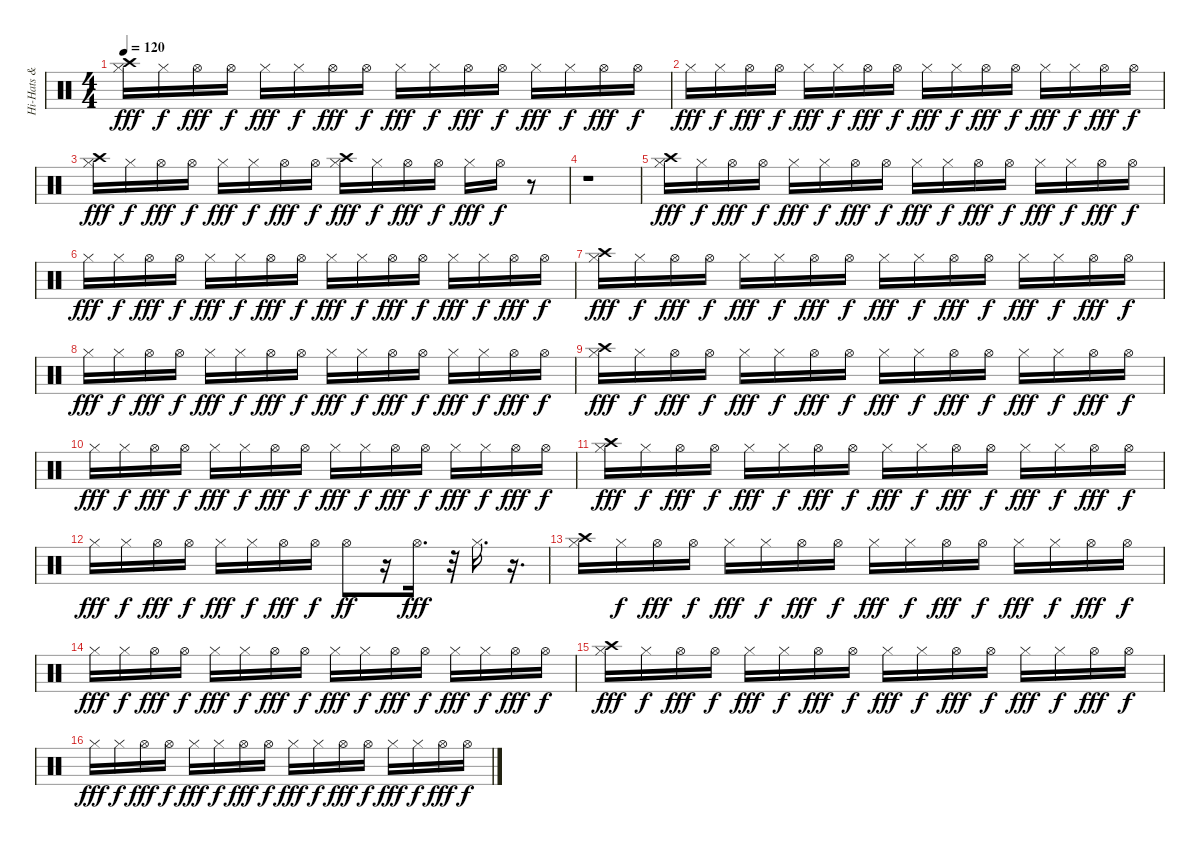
\track ("Hi-Hats & Cymbal" "Hi-Hats & ") {instrument percussion}
\staff {score}
\articulation defaults
\ts (4 4)
\tempo 120
\clef neutral
\ks c
("Hi-Hat (closed)" "Crash high (hit)").16{dy fff} "Hi-Hat (closed)".16{dy f} "Hi-Hat (open)".16{dy fff} "Hi-Hat (open)".16{dy f} "Hi-Hat (closed)".16{dy fff} "Hi-Hat (closed)".16{dy f} "Hi-Hat (open)".16{dy fff} "Hi-Hat (open)".16{dy f} "Hi-Hat (closed)".16{dy fff} "Hi-Hat (closed)".16{dy f} "Hi-Hat (open)".16{dy fff} "Hi-Hat (open)".16{dy f} "Hi-Hat (closed)".16{dy fff} "Hi-Hat (closed)".16{dy f} "Hi-Hat (open)".16{dy fff} "Hi-Hat (open)".16{dy f} |
"Hi-Hat (closed)".16{dy fff} "Hi-Hat (closed)".16{dy f} "Hi-Hat (open)".16{dy fff} "Hi-Hat (open)".16{dy f} "Hi-Hat (closed)".16{dy fff} "Hi-Hat (closed)".16{dy f} "Hi-Hat (open)".16{dy fff} "Hi-Hat (open)".16{dy f} "Hi-Hat (closed)".16{dy fff} "Hi-Hat (closed)".16{dy f} "Hi-Hat (open)".16{dy fff} "Hi-Hat (open)".16{dy f} "Hi-Hat (closed)".16{dy fff} "Hi-Hat (closed)".16{dy f} "Hi-Hat (open)".16{dy fff} "Hi-Hat (open)".16{dy f} |
("Hi-Hat (closed)" "Crash high (hit)").16{dy fff} "Hi-Hat (closed)".16{dy f} "Hi-Hat (open)".16{dy fff} "Hi-Hat (open)".16{dy f} "Hi-Hat (closed)".16{dy fff} "Hi-Hat (closed)".16{dy f} "Hi-Hat (open)".16{dy fff} "Hi-Hat (open)".16{dy f} ("Hi-Hat (closed)" "Crash high (hit)").16{dy fff} "Hi-Hat (closed)".16{dy f} "Hi-Hat (open)".16{dy fff} "Hi-Hat (open)".16{dy f} "Hi-Hat (closed)".16{dy fff} "Hi-Hat (open)".16{dy f} r.8 |
r.1 |
("Hi-Hat (closed)" "Crash high (hit)").16{dy fff} "Hi-Hat (closed)".16{dy f} "Hi-Hat (open)".16{dy fff} "Hi-Hat (open)".16{dy f} "Hi-Hat (closed)".16{dy fff} "Hi-Hat (closed)".16{dy f} "Hi-Hat (open)".16{dy fff} "Hi-Hat (open)".16{dy f} "Hi-Hat (closed)".16{dy fff} "Hi-Hat (closed)".16{dy f} "Hi-Hat (open)".16{dy fff} "Hi-Hat (open)".16{dy f} "Hi-Hat (closed)".16{dy fff} "Hi-Hat (closed)".16{dy f} "Hi-Hat (open)".16{dy fff} "Hi-Hat (open)".16{dy f} |
"Hi-Hat (closed)".16{dy fff} "Hi-Hat (closed)".16{dy f} "Hi-Hat (open)".16{dy fff} "Hi-Hat (open)".16{dy f} "Hi-Hat (closed)".16{dy fff} "Hi-Hat (closed)".16{dy f} "Hi-Hat (open)".16{dy fff} "Hi-Hat (open)".16{dy f} "Hi-Hat (closed)".16{dy fff} "Hi-Hat (closed)".16{dy f} "Hi-Hat (open)".16{dy fff} "Hi-Hat (open)".16{dy f} "Hi-Hat (closed)".16{dy fff} "Hi-Hat (closed)".16{dy f} "Hi-Hat (open)".16{dy fff} "Hi-Hat (open)".16{dy f} |
("Hi-Hat (closed)" "Crash high (hit)").16{dy fff} "Hi-Hat (closed)".16{dy f} "Hi-Hat (open)".16{dy fff} "Hi-Hat (open)".16{dy f} "Hi-Hat (closed)".16{dy fff} "Hi-Hat (closed)".16{dy f} "Hi-Hat (open)".16{dy fff} "Hi-Hat (open)".16{dy f} "Hi-Hat (closed)".16{dy fff} "Hi-Hat (closed)".16{dy f} "Hi-Hat (open)".16{dy fff} "Hi-Hat (open)".16{dy f} "Hi-Hat (closed)".16{dy fff} "Hi-Hat (closed)".16{dy f} "Hi-Hat (open)".16{dy fff} "Hi-Hat (open)".16{dy f} |
"Hi-Hat (closed)".16{dy fff} "Hi-Hat (closed)".16{dy f} "Hi-Hat (open)".16{dy fff} "Hi-Hat (open)".16{dy f} "Hi-Hat (closed)".16{dy fff} "Hi-Hat (closed)".16{dy f} "Hi-Hat (open)".16{dy fff} "Hi-Hat (open)".16{dy f} "Hi-Hat (closed)".16{dy fff} "Hi-Hat (closed)".16{dy f} "Hi-Hat (open)".16{dy fff} "Hi-Hat (open)".16{dy f} "Hi-Hat (closed)".16{dy fff} "Hi-Hat (closed)".16{dy f} "Hi-Hat (open)".16{dy fff} "Hi-Hat (open)".16{dy f} |
("Hi-Hat (closed)" "Crash high (hit)").16{dy fff} "Hi-Hat (closed)".16{dy f} "Hi-Hat (open)".16{dy fff} "Hi-Hat (open)".16{dy f} "Hi-Hat (closed)".16{dy fff} "Hi-Hat (closed)".16{dy f} "Hi-Hat (open)".16{dy fff} "Hi-Hat (open)".16{dy f} "Hi-Hat (closed)".16{dy fff} "Hi-Hat (closed)".16{dy f} "Hi-Hat (open)".16{dy fff} "Hi-Hat (open)".16{dy f} "Hi-Hat (closed)".16{dy fff} "Hi-Hat (closed)".16{dy f} "Hi-Hat (open)".16{dy fff} "Hi-Hat (open)".16{dy f} |
"Hi-Hat (closed)".16{dy fff} "Hi-Hat (closed)".16{dy f} "Hi-Hat (open)".16{dy fff} "Hi-Hat (open)".16{dy f} "Hi-Hat (closed)".16{dy fff} "Hi-Hat (closed)".16{dy f} "Hi-Hat (open)".16{dy fff} "Hi-Hat (open)".16{dy f} "Hi-Hat (closed)".16{dy fff} "Hi-Hat (closed)".16{dy f} "Hi-Hat (open)".16{dy fff} "Hi-Hat (open)".16{dy f} "Hi-Hat (closed)".16{dy fff} "Hi-Hat (closed)".16{dy f} "Hi-Hat (open)".16{dy fff} "Hi-Hat (open)".16{dy f} |
("Hi-Hat (closed)" "Crash high (hit)").16{dy fff} "Hi-Hat (closed)".16{dy f} "Hi-Hat (open)".16{dy fff} "Hi-Hat (open)".16{dy f} "Hi-Hat (closed)".16{dy fff} "Hi-Hat (closed)".16{dy f} "Hi-Hat (open)".16{dy fff} "Hi-Hat (open)".16{dy f} "Hi-Hat (closed)".16{dy fff} "Hi-Hat (closed)".16{dy f} "Hi-Hat (open)".16{dy fff} "Hi-Hat (open)".16{dy f} "Hi-Hat (closed)".16{dy fff} "Hi-Hat (closed)".16{dy f} "Hi-Hat (open)".16{dy fff} "Hi-Hat (open)".16{dy f} |
"Hi-Hat (closed)".16{dy fff} "Hi-Hat (closed)".16{dy f} "Hi-Hat (open)".16{dy fff} "Hi-Hat (open)".16{dy f} "Hi-Hat (closed)".16{dy fff} "Hi-Hat (closed)".16{dy f} "Hi-Hat (open)".16{dy fff} "Hi-Hat (open)".16{dy f} "Hi-Hat (open)".8{dy ff} r.16 "Hi-Hat (open)".16{d dy fff} r.32 "Hi-Hat (closed)".16{d} r.16{d} |
("Hi-Hat (closed)" "Crash high (hit)").16 "Hi-Hat (closed)".16{dy f} "Hi-Hat (open)".16{dy fff} "Hi-Hat (open)".16{dy f} "Hi-Hat (closed)".16{dy fff} "Hi-Hat (closed)".16{dy f} "Hi-Hat (open)".16{dy fff} "Hi-Hat (open)".16{dy f} "Hi-Hat (closed)".16{dy fff} "Hi-Hat (closed)".16{dy f} "Hi-Hat (open)".16{dy fff} "Hi-Hat (open)".16{dy f} "Hi-Hat (closed)".16{dy fff} "Hi-Hat (closed)".16{dy f} "Hi-Hat (open)".16{dy fff} "Hi-Hat (open)".16{dy f} |
"Hi-Hat (closed)".16{dy fff} "Hi-Hat (closed)".16{dy f} "Hi-Hat (open)".16{dy fff} "Hi-Hat (open)".16{dy f} "Hi-Hat (closed)".16{dy fff} "Hi-Hat (closed)".16{dy f} "Hi-Hat (open)".16{dy fff} "Hi-Hat (open)".16{dy f} "Hi-Hat (closed)".16{dy fff} "Hi-Hat (closed)".16{dy f} "Hi-Hat (open)".16{dy fff} "Hi-Hat (open)".16{dy f} "Hi-Hat (closed)".16{dy fff} "Hi-Hat (closed)".16{dy f} "Hi-Hat (open)".16{dy fff} "Hi-Hat (open)".16{dy f} |
("Hi-Hat (closed)" "Crash high (hit)").16{dy fff} "Hi-Hat (closed)".16{dy f} "Hi-Hat (open)".16{dy fff} "Hi-Hat (open)".16{dy f} "Hi-Hat (closed)".16{dy fff} "Hi-Hat (closed)".16{dy f} "Hi-Hat (open)".16{dy fff} "Hi-Hat (open)".16{dy f} "Hi-Hat (closed)".16{dy fff} "Hi-Hat (closed)".16{dy f} "Hi-Hat (open)".16{dy fff} "Hi-Hat (open)".16{dy f} "Hi-Hat (closed)".16{dy fff} "Hi-Hat (closed)".16{dy f} "Hi-Hat (open)".16{dy fff} "Hi-Hat (open)".16{dy f} |
"Hi-Hat (closed)".16{dy fff} "Hi-Hat (closed)".16{dy f} "Hi-Hat (open)".16{dy fff} "Hi-Hat (open)".16{dy f} "Hi-Hat (closed)".16{dy fff} "Hi-Hat (closed)".16{dy f} "Hi-Hat (open)".16{dy fff} "Hi-Hat (open)".16{dy f} "Hi-Hat (closed)".16{dy fff} "Hi-Hat (closed)".16{dy f} "Hi-Hat (open)".16{dy fff} "Hi-Hat (open)".16{dy f} "Hi-Hat (closed)".16{dy fff} "Hi-Hat (closed)".16{dy f} "Hi-Hat (open)".16{dy fff} "Hi-Hat (open)".16{dy f}
